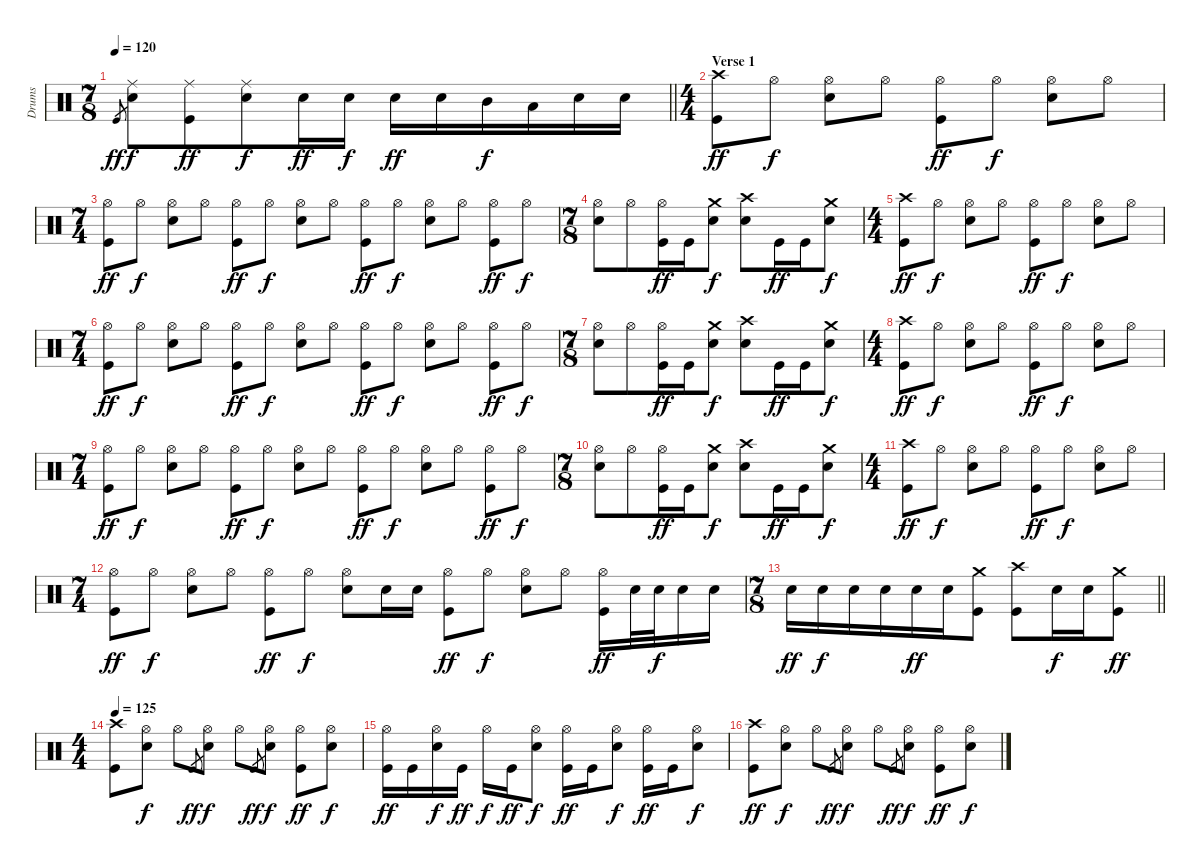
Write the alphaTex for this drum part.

\track ("Drums" "Drums") {instrument percussion}
\staff {score}
\articulation defaults
\ts (7 8)
\tempo 120
\clef neutral
\barLineRight lightlight
\ks c "Kick (hit)".8{gr dy ff}
("Ride (middle)" "Snare (hit) 2").8{dy f} ("Ride (middle)" "Kick (hit)").8{dy ff} ("Ride (middle)" "Snare (hit) 2").8{dy f} "Snare (hit) 2".16{dy ff} "Snare (hit) 2".16{dy f} "Snare (hit) 2".16{dy ff} "Snare (hit) 2".16 "Mid Tom (hit)".16{dy f} "Low Tom (hit)".16 "Snare (hit) 2".16 "Snare (hit) 2".16 |
\ts (4 4)
\section ("" "Verse 1")
("Crash high (hit)" "Kick (hit)").8{dy ff} "Hi-Hat (open)".8{dy f} ("Hi-Hat (open)" "Snare (hit) 2").8 "Hi-Hat (open)".8 ("Hi-Hat (open)" "Kick (hit)").8{dy ff} "Hi-Hat (open)".8{dy f} ("Hi-Hat (open)" "Snare (hit) 2").8 "Hi-Hat (open)".8 |
\ts (7 4)
("Hi-Hat (open)" "Kick (hit)").8{dy ff} "Hi-Hat (open)".8{dy f} ("Hi-Hat (open)" "Snare (hit) 2").8 "Hi-Hat (open)".8 ("Hi-Hat (open)" "Kick (hit)").8{dy ff} "Hi-Hat (open)".8{dy f} ("Hi-Hat (open)" "Snare (hit) 2").8 "Hi-Hat (open)".8 ("Hi-Hat (open)" "Kick (hit)").8{dy ff} "Hi-Hat (open)".8{dy f} ("Hi-Hat (open)" "Snare (hit) 2").8 "Hi-Hat (open)".8 ("Hi-Hat (open)" "Kick (hit)").8{dy ff} "Hi-Hat (open)".8{dy f} |
\ts (7 8)
("Hi-Hat (open)" "Snare (hit) 2").8 "Hi-Hat (open)".8 ("Hi-Hat (open)" "Kick (hit)").16{dy ff} "Kick (hit)".16 ("Crash medium (hit)" "Snare (hit) 2").8{dy f} ("Crash high (hit)" "Snare (hit) 2").8 "Kick (hit)".16{dy ff} "Kick (hit)".16 ("Crash medium (hit)" "Snare (hit) 2").8{dy f} |
\ts (4 4)
("Crash high (hit)" "Kick (hit)").8{dy ff} "Hi-Hat (open)".8{dy f} ("Hi-Hat (open)" "Snare (hit) 2").8 "Hi-Hat (open)".8 ("Hi-Hat (open)" "Kick (hit)").8{dy ff} "Hi-Hat (open)".8{dy f} ("Hi-Hat (open)" "Snare (hit) 2").8 "Hi-Hat (open)".8 |
\ts (7 4)
("Hi-Hat (open)" "Kick (hit)").8{dy ff} "Hi-Hat (open)".8{dy f} ("Hi-Hat (open)" "Snare (hit) 2").8 "Hi-Hat (open)".8 ("Hi-Hat (open)" "Kick (hit)").8{dy ff} "Hi-Hat (open)".8{dy f} ("Hi-Hat (open)" "Snare (hit) 2").8 "Hi-Hat (open)".8 ("Hi-Hat (open)" "Kick (hit)").8{dy ff} "Hi-Hat (open)".8{dy f} ("Hi-Hat (open)" "Snare (hit) 2").8 "Hi-Hat (open)".8 ("Hi-Hat (open)" "Kick (hit)").8{dy ff} "Hi-Hat (open)".8{dy f} |
\ts (7 8)
("Hi-Hat (open)" "Snare (hit) 2").8 "Hi-Hat (open)".8 ("Hi-Hat (open)" "Kick (hit)").16{dy ff} "Kick (hit)".16 ("Crash medium (hit)" "Snare (hit) 2").8{dy f} ("Crash high (hit)" "Snare (hit) 2").8 "Kick (hit)".16{dy ff} "Kick (hit)".16 ("Crash medium (hit)" "Snare (hit) 2").8{dy f} |
\ts (4 4)
("Crash high (hit)" "Kick (hit)").8{dy ff} "Hi-Hat (open)".8{dy f} ("Hi-Hat (open)" "Snare (hit) 2").8 "Hi-Hat (open)".8 ("Hi-Hat (open)" "Kick (hit)").8{dy ff} "Hi-Hat (open)".8{dy f} ("Hi-Hat (open)" "Snare (hit) 2").8 "Hi-Hat (open)".8 |
\ts (7 4)
("Hi-Hat (open)" "Kick (hit)").8{dy ff} "Hi-Hat (open)".8{dy f} ("Hi-Hat (open)" "Snare (hit) 2").8 "Hi-Hat (open)".8 ("Hi-Hat (open)" "Kick (hit)").8{dy ff} "Hi-Hat (open)".8{dy f} ("Hi-Hat (open)" "Snare (hit) 2").8 "Hi-Hat (open)".8 ("Hi-Hat (open)" "Kick (hit)").8{dy ff} "Hi-Hat (open)".8{dy f} ("Hi-Hat (open)" "Snare (hit) 2").8 "Hi-Hat (open)".8 ("Hi-Hat (open)" "Kick (hit)").8{dy ff} "Hi-Hat (open)".8{dy f} |
\ts (7 8)
("Hi-Hat (open)" "Snare (hit) 2").8 "Hi-Hat (open)".8 ("Hi-Hat (open)" "Kick (hit)").16{dy ff} "Kick (hit)".16 ("Crash medium (hit)" "Snare (hit) 2").8{dy f} ("Crash high (hit)" "Snare (hit) 2").8 "Kick (hit)".16{dy ff} "Kick (hit)".16 ("Crash medium (hit)" "Snare (hit) 2").8{dy f} |
\ts (4 4)
("Crash high (hit)" "Kick (hit)").8{dy ff} "Hi-Hat (open)".8{dy f} ("Hi-Hat (open)" "Snare (hit) 2").8 "Hi-Hat (open)".8 ("Hi-Hat (open)" "Kick (hit)").8{dy ff} "Hi-Hat (open)".8{dy f} ("Hi-Hat (open)" "Snare (hit) 2").8 "Hi-Hat (open)".8 |
\ts (7 4)
("Hi-Hat (open)" "Kick (hit)").8{dy ff} "Hi-Hat (open)".8{dy f} ("Hi-Hat (open)" "Snare (hit) 2").8 "Hi-Hat (open)".8 ("Hi-Hat (open)" "Kick (hit)").8{dy ff} "Hi-Hat (open)".8{dy f} ("Hi-Hat (open)" "Snare (hit) 2").8 "Snare (hit) 2".16 "Snare (hit) 2".16 ("Hi-Hat (open)" "Kick (hit)").8{dy ff} "Hi-Hat (open)".8{dy f} ("Hi-Hat (open)" "Snare (hit) 2").8 "Hi-Hat (open)".8 ("Hi-Hat (open)" "Kick (hit)").16{dy ff} "Snare (hit) 2".32 "Snare (hit) 2".32{dy f} "Snare (hit) 2".16 "Snare (hit) 2".16 |
\ts (7 8)
\barLineRight lightlight "Snare (hit) 2".16{dy ff} "Snare (hit) 2".16{dy f} "Snare (hit) 2".16 "Snare (hit) 2".16 "Snare (hit) 2".16{dy ff} "Snare (hit) 2".16
("Crash medium (hit)" "Kick (hit)").8 ("Crash high (hit)" "Kick (hit)").8 "Snare (hit) 2".16{dy f} "Snare (hit) 2".16 ("Crash medium (hit)" "Kick (hit)").8{dy ff} |
\ts (4 4)
\tempo 125
("Crash high (hit)" "Kick (hit)").8 ("Hi-Hat (open)" "Snare (hit) 2").8{dy f} "Hi-Hat (open)".8 "Kick (hit)".8{gr dy ff} ("Hi-Hat (open)" "Snare (hit) 2").8{dy f} "Hi-Hat (open)".8 "Kick (hit)".8{gr dy ff} ("Hi-Hat (open)" "Snare (hit) 2").8{dy f} ("Hi-Hat (open)" "Kick (hit)").8{dy ff} ("Hi-Hat (open)" "Snare (hit) 2").8{dy f} |
("Hi-Hat (open)" "Kick (hit)").16{dy ff} "Kick (hit)".16 ("Hi-Hat (open)" "Snare (hit) 2").16{dy f} "Kick (hit)".16{dy ff} "Hi-Hat (open)".16{dy f} "Kick (hit)".16{dy ff} ("Hi-Hat (open)" "Snare (hit) 2").8{dy f} ("Hi-Hat (open)" "Kick (hit)").16{dy ff} "Kick (hit)".16 ("Hi-Hat (open)" "Snare (hit) 2").8{dy f} ("Hi-Hat (open)" "Kick (hit)").16{dy ff} "Kick (hit)".16 ("Hi-Hat (open)" "Snare (hit) 2").8{dy f} |
("Crash high (hit)" "Kick (hit)").8{dy ff} ("Hi-Hat (open)" "Snare (hit) 2").8{dy f} "Hi-Hat (open)".8 "Kick (hit)".8{gr dy ff} ("Hi-Hat (open)" "Snare (hit) 2").8{dy f} "Hi-Hat (open)".8 "Kick (hit)".8{gr dy ff} ("Hi-Hat (open)" "Snare (hit) 2").8{dy f} ("Hi-Hat (open)" "Kick (hit)").8{dy ff} ("Hi-Hat (open)" "Snare (hit) 2").8{dy f}
